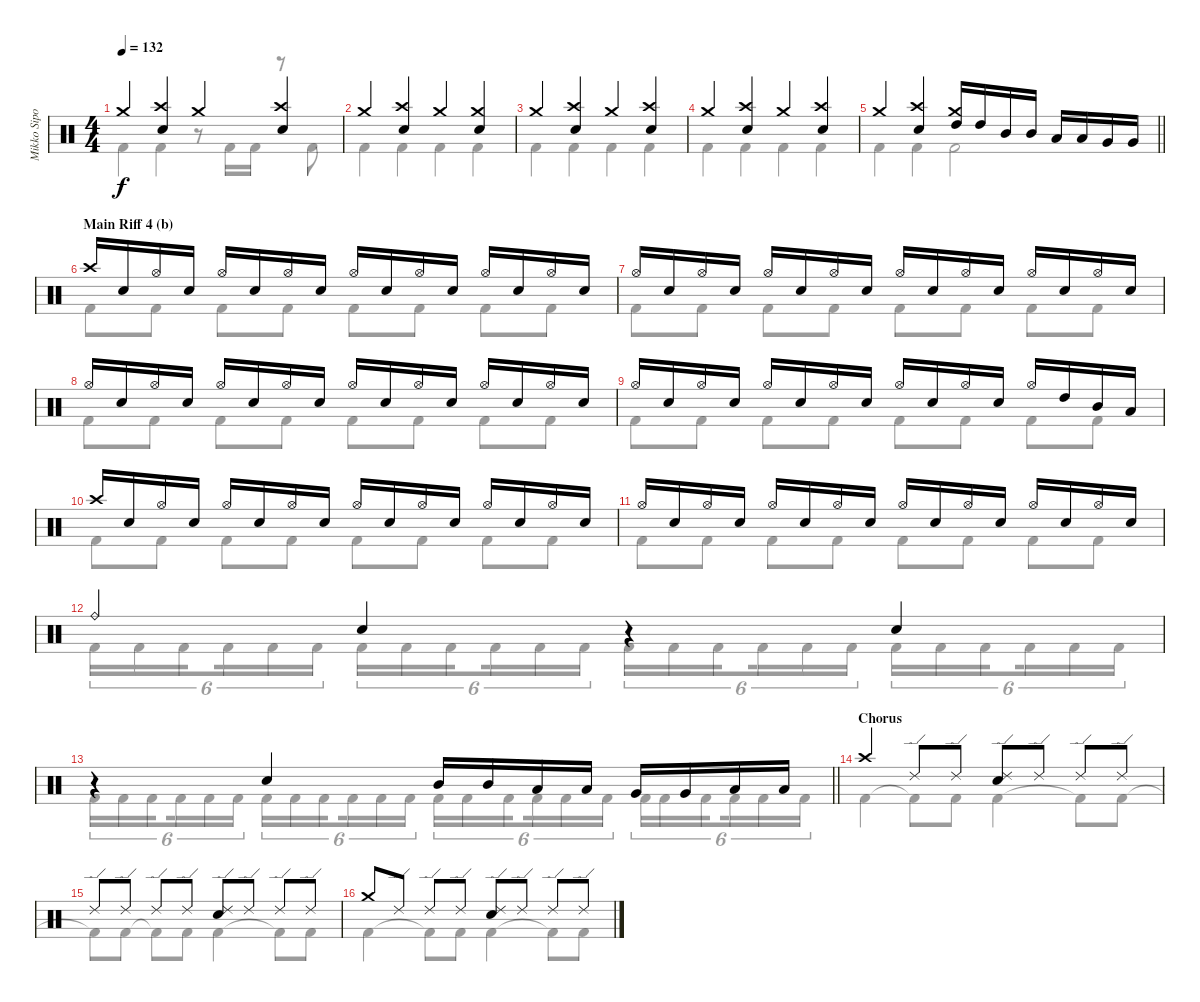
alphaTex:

\track ("Mikko Sipola (drums)" "Mikko Sipo") {instrument percussion}
\staff {score}
\articulation defaults
\voice
\ts (4 4)
\tempo 132
\clef neutral
\ks c "Crash medium (hit)".4{dy f}
("Electric Snare (hit)" "Crash high (hit)").4 "Crash medium (hit)".4 ("Electric Snare (hit)" "Crash high (hit)").4 |
"Crash medium (hit)".4 ("Electric Snare (hit)" "Crash high (hit)").4 "Crash medium (hit)".4 ("Electric Snare (hit)" "Crash medium (hit)").4 |
"Crash medium (hit)".4 ("Electric Snare (hit)" "Crash high (hit)").4 "Crash medium (hit)".4 ("Electric Snare (hit)" "Crash high (hit)").4 |
"Crash medium (hit)".4 ("Electric Snare (hit)" "Crash high (hit)").4 "Crash medium (hit)".4 ("Electric Snare (hit)" "Crash high (hit)").4 |
\barLineRight lightlight "Crash medium (hit)".4
("Electric Snare (hit)" "Crash high (hit)").4 ("High Tom (hit)" "Crash medium (hit)").16 "High Tom (hit)".16 "Mid Tom (hit)".16 "Mid Tom (hit)".16 "Low Tom (hit)".16 "Low Tom (hit)".16 "Very Low Tom (hit)".16 "Very Low Tom (hit)".16 |
\section ("" "Main Riff 4 (b)")
"Crash high (hit)".16 "Electric Snare (hit)".16 "Hi-Hat (open)".16 "Electric Snare (hit)".16 "Hi-Hat (open)".16 "Electric Snare (hit)".16 "Hi-Hat (open)".16 "Electric Snare (hit)".16 "Hi-Hat (open)".16 "Electric Snare (hit)".16 "Hi-Hat (open)".16 "Electric Snare (hit)".16 "Hi-Hat (open)".16 "Electric Snare (hit)".16 "Hi-Hat (open)".16 "Electric Snare (hit)".16 |
"Hi-Hat (open)".16 "Electric Snare (hit)".16 "Hi-Hat (open)".16 "Electric Snare (hit)".16 "Hi-Hat (open)".16 "Electric Snare (hit)".16 "Hi-Hat (open)".16 "Electric Snare (hit)".16 "Hi-Hat (open)".16 "Electric Snare (hit)".16 "Hi-Hat (open)".16 "Electric Snare (hit)".16 "Hi-Hat (open)".16 "Electric Snare (hit)".16 "Hi-Hat (open)".16 "Electric Snare (hit)".16 |
"Hi-Hat (open)".16 "Electric Snare (hit)".16 "Hi-Hat (open)".16 "Electric Snare (hit)".16 "Hi-Hat (open)".16 "Electric Snare (hit)".16 "Hi-Hat (open)".16 "Electric Snare (hit)".16 "Hi-Hat (open)".16 "Electric Snare (hit)".16 "Hi-Hat (open)".16 "Electric Snare (hit)".16 "Hi-Hat (open)".16 "Electric Snare (hit)".16 "Hi-Hat (open)".16 "Electric Snare (hit)".16 |
"Hi-Hat (open)".16 "Electric Snare (hit)".16 "Hi-Hat (open)".16 "Electric Snare (hit)".16 "Hi-Hat (open)".16 "Electric Snare (hit)".16 "Hi-Hat (open)".16 "Electric Snare (hit)".16 "Hi-Hat (open)".16 "Electric Snare (hit)".16 "Hi-Hat (open)".16 "Electric Snare (hit)".16 "Hi-Hat (open)".16 "High Tom (hit)".16 "Mid Tom (hit)".16 "Low Tom (hit)".16 |
"Crash high (hit)".16 "Electric Snare (hit)".16 "Hi-Hat (open)".16 "Electric Snare (hit)".16 "Hi-Hat (open)".16 "Electric Snare (hit)".16 "Hi-Hat (open)".16 "Electric Snare (hit)".16 "Hi-Hat (open)".16 "Electric Snare (hit)".16 "Hi-Hat (open)".16 "Electric Snare (hit)".16 "Hi-Hat (open)".16 "Electric Snare (hit)".16 "Hi-Hat (open)".16 "Electric Snare (hit)".16 |
"Hi-Hat (open)".16 "Electric Snare (hit)".16 "Hi-Hat (open)".16 "Electric Snare (hit)".16 "Hi-Hat (open)".16 "Electric Snare (hit)".16 "Hi-Hat (open)".16 "Electric Snare (hit)".16 "Hi-Hat (open)".16 "Electric Snare (hit)".16 "Hi-Hat (open)".16 "Electric Snare (hit)".16 "Hi-Hat (open)".16 "Electric Snare (hit)".16 "Hi-Hat (open)".16 "Electric Snare (hit)".16 |
"Ride (bell)".4 "Electric Snare (hit)".4 r.4 "Electric Snare (hit)".4 |
\barLineRight lightlight
r.4 "Electric Snare (hit)".4 "Mid Tom (hit)".16 "Mid Tom (hit)".16 "Low Tom (hit)".16 "Low Tom (hit)".16 "Very Low Tom (hit)".16 "Very Low Tom (hit)".16 "Low Floor Tom (hit)".16 "Low Floor Tom (hit)".16 |
\section ("" "Chorus")
"Crash high (hit)".4 "Ride (edge) 2".8 "Ride (edge) 2".8 ("Ride (edge) 2" "Electric Snare (hit)").8 "Ride (edge) 2".8 "Ride (edge) 2".8 "Ride (edge) 2".8 |
"Ride (edge) 2".8 "Ride (edge) 2".8 "Ride (edge) 2".8 "Ride (edge) 2".8 ("Ride (edge) 2" "Electric Snare (hit)").8 "Ride (edge) 2".8 "Ride (edge) 2".8 "Ride (edge) 2".8 |
"Crash medium (hit)".8 "Ride (edge) 2".8 "Ride (edge) 2".8 "Ride (edge) 2".8 ("Ride (edge) 2" "Electric Snare (hit)").8 "Ride (edge) 2".8 "Ride (edge) 2".8 "Ride (edge) 2".8
\voice
\clef neutral
\ottava regular
\simile none
\ks c "Kick (hit) 2".4{dy f} "Kick (hit) 2".4
r.8 "Kick (hit) 2".16 "Kick (hit) 2".16 r.8 "Kick (hit) 2".8 |
"Kick (hit) 2".4 "Kick (hit) 2".4 "Kick (hit) 2".4 "Kick (hit) 2".4 |
"Kick (hit) 2".4 "Kick (hit) 2".4 "Kick (hit) 2".4 "Kick (hit) 2".4 |
"Kick (hit) 2".4 "Kick (hit) 2".4 "Kick (hit) 2".4 "Kick (hit) 2".4 |
\barLineRight lightlight "Kick (hit) 2".4 "Kick (hit) 2".4 "Kick (hit) 2".2
|
"Kick (hit) 2".8 "Kick (hit) 2".8 "Kick (hit) 2".8 "Kick (hit) 2".8 "Kick (hit) 2".8 "Kick (hit) 2".8 "Kick (hit) 2".8 "Kick (hit) 2".8 |
"Kick (hit) 2".8 "Kick (hit) 2".8 "Kick (hit) 2".8 "Kick (hit) 2".8 "Kick (hit) 2".8 "Kick (hit) 2".8 "Kick (hit) 2".8 "Kick (hit) 2".8 |
"Kick (hit) 2".8 "Kick (hit) 2".8 "Kick (hit) 2".8 "Kick (hit) 2".8 "Kick (hit) 2".8 "Kick (hit) 2".8 "Kick (hit) 2".8 "Kick (hit) 2".8 |
"Kick (hit) 2".8 "Kick (hit) 2".8 "Kick (hit) 2".8 "Kick (hit) 2".8 "Kick (hit) 2".8 "Kick (hit) 2".8 "Kick (hit) 2".8 "Kick (hit) 2".8 |
"Kick (hit) 2".8 "Kick (hit) 2".8 "Kick (hit) 2".8 "Kick (hit) 2".8 "Kick (hit) 2".8 "Kick (hit) 2".8 "Kick (hit) 2".8 "Kick (hit) 2".8 |
"Kick (hit) 2".8 "Kick (hit) 2".8 "Kick (hit) 2".8 "Kick (hit) 2".8 "Kick (hit) 2".8 "Kick (hit) 2".8 "Kick (hit) 2".8 "Kick (hit) 2".8 |
"Kick (hit) 2".16{tu (6 4)} "Kick (hit) 2".16{tu (6 4)} "Kick (hit) 2".16{tu (6 4) beam splitsecondary} "Kick (hit) 2".16{tu (6 4)} "Kick (hit) 2".16{tu (6 4)} "Kick (hit) 2".16{tu (6 4)} "Kick (hit) 2".16{tu (6 4)} "Kick (hit) 2".16{tu (6 4)} "Kick (hit) 2".16{tu (6 4) beam splitsecondary} "Kick (hit) 2".16{tu (6 4)} "Kick (hit) 2".16{tu (6 4)} "Kick (hit) 2".16{tu (6 4)} "Kick (hit) 2".16{tu (6 4)} "Kick (hit) 2".16{tu (6 4)} "Kick (hit) 2".16{tu (6 4) beam splitsecondary} "Kick (hit) 2".16{tu (6 4)} "Kick (hit) 2".16{tu (6 4)} "Kick (hit) 2".16{tu (6 4)} "Kick (hit) 2".16{tu (6 4)} "Kick (hit) 2".16{tu (6 4)} "Kick (hit) 2".16{tu (6 4) beam splitsecondary} "Kick (hit) 2".16{tu (6 4)} "Kick (hit) 2".16{tu (6 4)} "Kick (hit) 2".16{tu (6 4)} |
\barLineRight lightlight "Kick (hit) 2".16{tu (6 4)} "Kick (hit) 2".16{tu (6 4)} "Kick (hit) 2".16{tu (6 4) beam splitsecondary} "Kick (hit) 2".16{tu (6 4)} "Kick (hit) 2".16{tu (6 4)} "Kick (hit) 2".16{tu (6 4)} "Kick (hit) 2".16{tu (6 4)} "Kick (hit) 2".16{tu (6 4)} "Kick (hit) 2".16{tu (6 4) beam splitsecondary} "Kick (hit) 2".16{tu (6 4)} "Kick (hit) 2".16{tu (6 4)} "Kick (hit) 2".16{tu (6 4)} "Kick (hit) 2".16{tu (6 4)} "Kick (hit) 2".16{tu (6 4)} "Kick (hit) 2".16{tu (6 4) beam splitsecondary} "Kick (hit) 2".16{tu (6 4)} "Kick (hit) 2".16{tu (6 4)} "Kick (hit) 2".16{tu (6 4)} "Kick (hit) 2".16{tu (6 4)} "Kick (hit) 2".16{tu (6 4)} "Kick (hit) 2".16{tu (6 4) beam splitsecondary} "Kick (hit) 2".16{tu (6 4)} "Kick (hit) 2".16{tu (6 4)} "Kick (hit) 2".16{tu (6 4)}
|
"Kick (hit) 2".4 "Kick (hit) 2"{t}.8 "Kick (hit) 2".8 "Kick (hit) 2".4 "Kick (hit) 2"{t}.8 "Kick (hit) 2".8 |
"Kick (hit) 2"{t}.8 "Kick (hit) 2".8 "Kick (hit) 2"{t}.8 "Kick (hit) 2".8 "Kick (hit) 2".4 "Kick (hit) 2"{t}.8 "Kick (hit) 2".8 |
"Kick (hit) 2".4 "Kick (hit) 2"{t}.8 "Kick (hit) 2".8 "Kick (hit) 2".4 "Kick (hit) 2"{t}.8 "Kick (hit) 2".8
